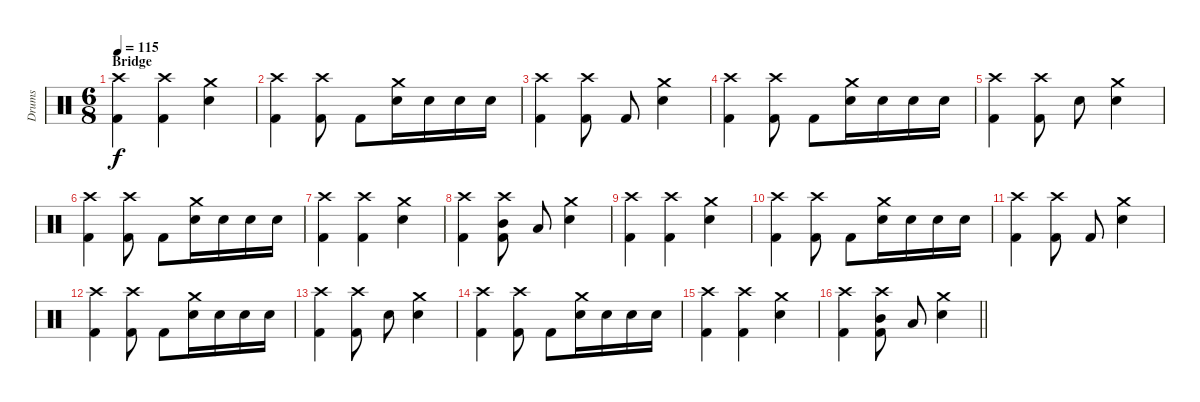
\track ("Drums" "Drums") {instrument percussion}
\staff {score}
\articulation defaults
\ts (6 8)
\section ("" "Bridge")
\tempo 115
\clef neutral
\ks c
("Crash high (hit)" "Kick (hit) 2").4{dy f} ("Crash high (hit)" "Kick (hit) 2").4 ("Crash medium (hit)" "Electric Snare (hit)").4 |
("Crash high (hit)" "Kick (hit) 2").4 ("Crash high (hit)" "Kick (hit) 2").8 "Kick (hit) 2".8 ("Crash medium (hit)" "Electric Snare (hit)").16 "Electric Snare (hit)".16 "Electric Snare (hit)".16 "Electric Snare (hit)".16 |
("Crash high (hit)" "Kick (hit) 2").4 ("Crash high (hit)" "Kick (hit) 2").8 "Kick (hit) 2".8 ("Crash medium (hit)" "Electric Snare (hit)").4 |
("Crash high (hit)" "Kick (hit) 2").4 ("Crash high (hit)" "Kick (hit) 2").8 "Kick (hit) 2".8 ("Crash medium (hit)" "Electric Snare (hit)").16 "Electric Snare (hit)".16 "Electric Snare (hit)".16 "Electric Snare (hit)".16 |
("Crash high (hit)" "Kick (hit) 2").4 ("Crash high (hit)" "Kick (hit) 2").8 "Electric Snare (hit)".8 ("Crash medium (hit)" "Electric Snare (hit)").4 |
("Crash high (hit)" "Kick (hit) 2").4 ("Crash high (hit)" "Kick (hit) 2").8 "Kick (hit) 2".8 ("Crash medium (hit)" "Electric Snare (hit)").16 "Electric Snare (hit)".16 "Electric Snare (hit)".16 "Electric Snare (hit)".16 |
("Crash high (hit)" "Kick (hit) 2").4 ("Crash high (hit)" "Kick (hit) 2").4 ("Crash medium (hit)" "Electric Snare (hit)").4 |
("Crash high (hit)" "Kick (hit) 2").4 ("Crash high (hit)" "Mid Tom (hit)" "Kick (hit) 2").8 "Low Tom (hit)".8 ("Crash medium (hit)" "Electric Snare (hit)").4 |
("Crash high (hit)" "Kick (hit) 2").4 ("Crash high (hit)" "Kick (hit) 2").4 ("Crash medium (hit)" "Electric Snare (hit)").4 |
("Crash high (hit)" "Kick (hit) 2").4 ("Crash high (hit)" "Kick (hit) 2").8 "Kick (hit) 2".8 ("Crash medium (hit)" "Electric Snare (hit)").16 "Electric Snare (hit)".16 "Electric Snare (hit)".16 "Electric Snare (hit)".16 |
("Crash high (hit)" "Kick (hit) 2").4 ("Crash high (hit)" "Kick (hit) 2").8 "Kick (hit) 2".8 ("Crash medium (hit)" "Electric Snare (hit)").4 |
("Crash high (hit)" "Kick (hit) 2").4 ("Crash high (hit)" "Kick (hit) 2").8 "Kick (hit) 2".8 ("Crash medium (hit)" "Electric Snare (hit)").16 "Electric Snare (hit)".16 "Electric Snare (hit)".16 "Electric Snare (hit)".16 |
("Crash high (hit)" "Kick (hit) 2").4 ("Crash high (hit)" "Kick (hit) 2").8 "Electric Snare (hit)".8 ("Crash medium (hit)" "Electric Snare (hit)").4 |
("Crash high (hit)" "Kick (hit) 2").4 ("Crash high (hit)" "Kick (hit) 2").8 "Kick (hit) 2".8 ("Crash medium (hit)" "Electric Snare (hit)").16 "Electric Snare (hit)".16 "Electric Snare (hit)".16 "Electric Snare (hit)".16 |
("Crash high (hit)" "Kick (hit) 2").4 ("Crash high (hit)" "Kick (hit) 2").4 ("Crash medium (hit)" "Electric Snare (hit)").4 |
\barLineRight lightlight
("Crash high (hit)" "Kick (hit) 2").4 ("Crash high (hit)" "Mid Tom (hit)" "Kick (hit) 2").8 "Low Tom (hit)".8 ("Crash medium (hit)" "Electric Snare (hit)").4
